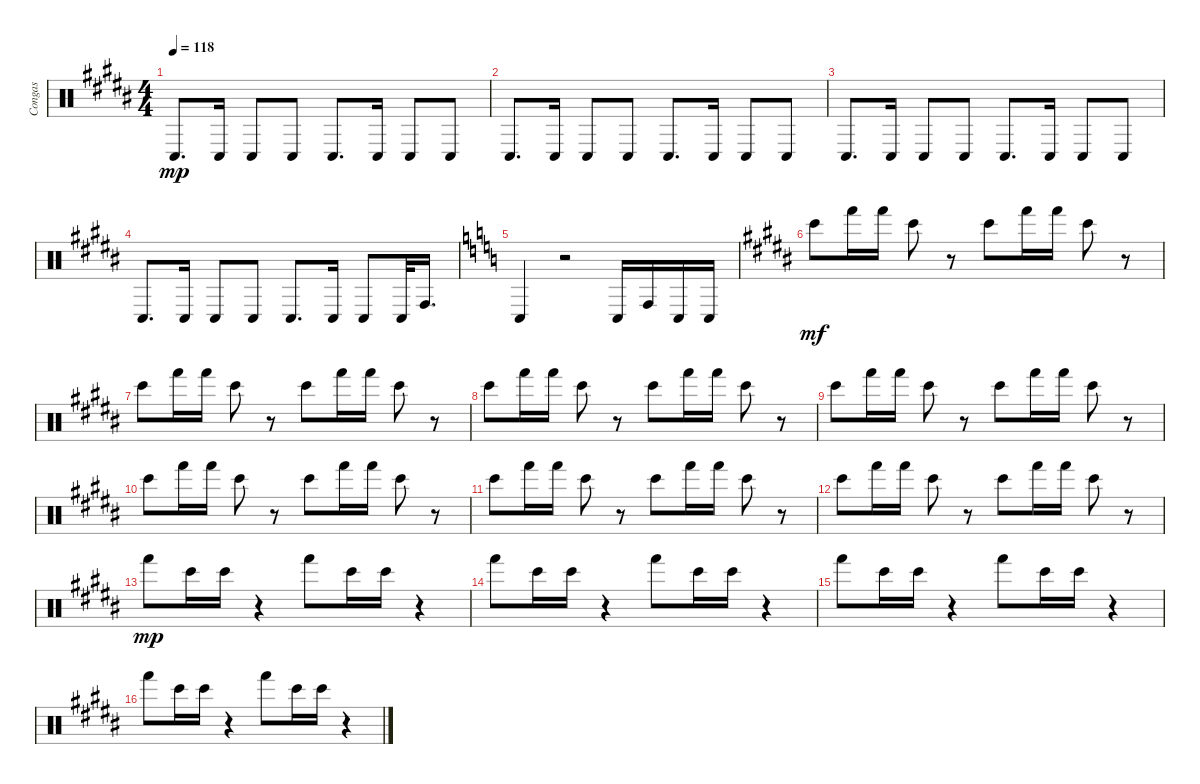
\track ("Congas" "Congas") {instrument percussion}
\staff {score}
\articulation defaults
\ts (4 4)
\tempo 118
\clef neutral
\ks b "Conga low (hit)".8{d dy mp} "Conga low (hit)".16 "Conga low (hit)".8 "Conga low (hit)".8 "Conga low (hit)".8{d} "Conga low (hit)".16 "Conga low (hit)".8 "Conga low (hit)".8
|
"Conga low (hit)".8{d} "Conga low (hit)".16 "Conga low (hit)".8 "Conga low (hit)".8 "Conga low (hit)".8{d} "Conga low (hit)".16 "Conga low (hit)".8 "Conga low (hit)".8 |
"Conga low (hit)".8{d} "Conga low (hit)".16 "Conga low (hit)".8 "Conga low (hit)".8 "Conga low (hit)".8{d} "Conga low (hit)".16 "Conga low (hit)".8 "Conga low (hit)".8 |
"Conga low (hit)".8{d} "Conga low (hit)".16 "Conga low (hit)".8 "Conga low (hit)".8 "Conga low (hit)".8{d} "Conga low (hit)".16 "Conga low (hit)".8 "Conga low (hit)".32 "Conga high (hit)".16{d} |
\ks c "Conga low (hit)".4
r.2 "Conga low (hit)".16 "Conga high (hit)".16 "Conga low (hit)".16 "Conga low (hit)".16 |
\ks b "Bongo High (hit)".8{dy mf} "Hand (hit)".16 "Hand (hit)".16 "Bongo High (hit)".8
r.8 "Bongo High (hit)".8 "Hand (hit)".16 "Hand (hit)".16 "Bongo High (hit)".8 r.8 |
"Bongo High (hit)".8 "Hand (hit)".16 "Hand (hit)".16 "Bongo High (hit)".8 r.8 "Bongo High (hit)".8 "Hand (hit)".16 "Hand (hit)".16 "Bongo High (hit)".8 r.8 |
"Bongo High (hit)".8 "Hand (hit)".16 "Hand (hit)".16 "Bongo High (hit)".8 r.8 "Bongo High (hit)".8 "Hand (hit)".16 "Hand (hit)".16 "Bongo High (hit)".8 r.8 |
"Bongo High (hit)".8 "Hand (hit)".16 "Hand (hit)".16 "Bongo High (hit)".8 r.8 "Bongo High (hit)".8 "Hand (hit)".16 "Hand (hit)".16 "Bongo High (hit)".8 r.8 |
"Bongo High (hit)".8 "Hand (hit)".16 "Hand (hit)".16 "Bongo High (hit)".8 r.8 "Bongo High (hit)".8 "Hand (hit)".16 "Hand (hit)".16 "Bongo High (hit)".8 r.8 |
"Bongo High (hit)".8 "Hand (hit)".16 "Hand (hit)".16 "Bongo High (hit)".8 r.8 "Bongo High (hit)".8 "Hand (hit)".16 "Hand (hit)".16 "Bongo High (hit)".8 r.8 |
"Bongo High (hit)".8 "Hand (hit)".16 "Hand (hit)".16 "Bongo High (hit)".8 r.8 "Bongo High (hit)".8 "Hand (hit)".16 "Hand (hit)".16 "Bongo High (hit)".8 r.8 |
"Hand (hit)".8{dy mp} "Bongo High (hit)".16 "Bongo High (hit)".16 r.4 "Hand (hit)".8 "Bongo High (hit)".16 "Bongo High (hit)".16 r.4 |
"Hand (hit)".8 "Bongo High (hit)".16 "Bongo High (hit)".16 r.4 "Hand (hit)".8 "Bongo High (hit)".16 "Bongo High (hit)".16 r.4 |
"Hand (hit)".8 "Bongo High (hit)".16 "Bongo High (hit)".16 r.4 "Hand (hit)".8 "Bongo High (hit)".16 "Bongo High (hit)".16 r.4 |
"Hand (hit)".8 "Bongo High (hit)".16 "Bongo High (hit)".16 r.4 "Hand (hit)".8 "Bongo High (hit)".16 "Bongo High (hit)".16 r.4
